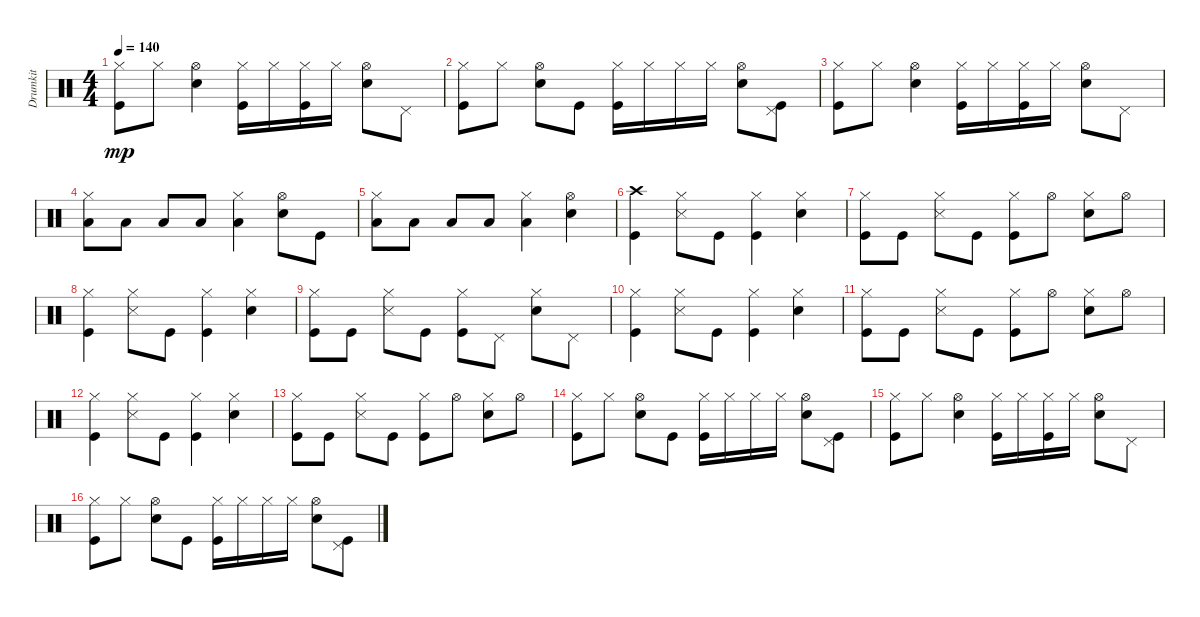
\track ("Drumkit" "Drumkit") {instrument percussion}
\staff {score}
\articulation defaults
\ts (4 4)
\tempo 140
\clef neutral
\ks c
("Hi-Hat (closed)" "Kick (hit)").8{dy mp} "Hi-Hat (closed)".8 ("Snare (hit) 2" "Hi-Hat (open)").4 ("Hi-Hat (closed)" "Kick (hit)").16 "Hi-Hat (closed)".16 ("Hi-Hat (closed)" "Kick (hit)").16 "Hi-Hat (closed)".16 ("Hi-Hat (open)" "Snare (hit) 2").8 "Pedal Hi-Hat (hit)".8 |
("Hi-Hat (closed)" "Kick (hit)").8 "Hi-Hat (closed)".8 ("Snare (hit) 2" "Hi-Hat (open)").8 "Kick (hit)".8 ("Hi-Hat (closed)" "Kick (hit)").16 "Hi-Hat (closed)".16 "Hi-Hat (closed)".16 "Hi-Hat (closed)".16 ("Hi-Hat (open)" "Snare (hit) 2").8 ("Pedal Hi-Hat (hit)" "Kick (hit)").8 |
("Hi-Hat (closed)" "Kick (hit)").8 "Hi-Hat (closed)".8 ("Snare (hit) 2" "Hi-Hat (open)").4 ("Hi-Hat (closed)" "Kick (hit)").16 "Hi-Hat (closed)".16 ("Hi-Hat (closed)" "Kick (hit)").16 "Hi-Hat (closed)".16 ("Hi-Hat (open)" "Snare (hit) 2").8 "Pedal Hi-Hat (hit)".8 |
("Low Floor Tom (hit)" "Hi-Hat (closed)").8 "Low Floor Tom (hit)".8 "Low Tom (hit)".8 "Low Tom (hit)".8 ("Low Floor Tom (hit)" "Hi-Hat (closed)").4 ("Snare (hit) 2" "Hi-Hat (open)").8 "Kick (hit)".8 |
("Low Floor Tom (hit)" "Hi-Hat (closed)").8 "Low Floor Tom (hit)".8 "Low Tom (hit)".8 "Low Tom (hit)".8 ("Low Floor Tom (hit)" "Hi-Hat (closed)").4 ("Snare (hit) 2" "Hi-Hat (open)").4 |
("Kick (hit)" "Crash high (hit)").4 ("Snare (side stick) 3" "Hi-Hat (closed)").8 "Kick (hit)".8 ("Kick (hit)" "Hi-Hat (closed)").4 ("Snare (hit) 2" "Hi-Hat (closed)").4 |
("Kick (hit)" "Hi-Hat (closed)").8 "Kick (hit)".8 ("Snare (side stick) 3" "Hi-Hat (closed)").8 "Kick (hit)".8 ("Hi-Hat (closed)" "Kick (hit)").8 "Hi-Hat (open)".8 ("Hi-Hat (closed)" "Snare (hit) 2").8 "Hi-Hat (open)".8 |
("Kick (hit)" "Hi-Hat (closed)").4 ("Snare (side stick) 3" "Hi-Hat (closed)").8 "Kick (hit)".8 ("Kick (hit)" "Hi-Hat (closed)").4 ("Snare (hit) 2" "Hi-Hat (closed)").4 |
("Kick (hit)" "Hi-Hat (closed)").8 "Kick (hit)".8 ("Snare (side stick) 3" "Hi-Hat (closed)").8 "Kick (hit)".8 ("Hi-Hat (closed)" "Kick (hit)").8 "Pedal Hi-Hat (hit)".8 ("Hi-Hat (closed)" "Snare (hit) 2").8 "Pedal Hi-Hat (hit)".8 |
("Kick (hit)" "Hi-Hat (closed)").4 ("Snare (side stick) 3" "Hi-Hat (closed)").8 "Kick (hit)".8 ("Kick (hit)" "Hi-Hat (closed)").4 ("Snare (hit) 2" "Hi-Hat (closed)").4 |
("Kick (hit)" "Hi-Hat (closed)").8 "Kick (hit)".8 ("Snare (side stick) 3" "Hi-Hat (closed)").8 "Kick (hit)".8 ("Hi-Hat (closed)" "Kick (hit)").8 "Hi-Hat (open)".8 ("Hi-Hat (closed)" "Snare (hit) 2").8 "Hi-Hat (open)".8 |
("Kick (hit)" "Hi-Hat (closed)").4 ("Snare (side stick) 3" "Hi-Hat (closed)").8 "Kick (hit)".8 ("Kick (hit)" "Hi-Hat (closed)").4 ("Snare (hit) 2" "Hi-Hat (closed)").4 |
("Kick (hit)" "Hi-Hat (closed)").8 "Kick (hit)".8 ("Snare (side stick) 3" "Hi-Hat (closed)").8 "Kick (hit)".8 ("Hi-Hat (closed)" "Kick (hit)").8 "Hi-Hat (open)".8 ("Hi-Hat (closed)" "Snare (hit) 2").8 "Hi-Hat (open)".8 |
("Hi-Hat (closed)" "Kick (hit)").8 "Hi-Hat (closed)".8 ("Snare (hit) 2" "Hi-Hat (open)").8 "Kick (hit)".8 ("Hi-Hat (closed)" "Kick (hit)").16 "Hi-Hat (closed)".16 "Hi-Hat (closed)".16 "Hi-Hat (closed)".16 ("Hi-Hat (open)" "Snare (hit) 2").8 ("Pedal Hi-Hat (hit)" "Kick (hit)").8 |
("Hi-Hat (closed)" "Kick (hit)").8 "Hi-Hat (closed)".8 ("Snare (hit) 2" "Hi-Hat (open)").4 ("Hi-Hat (closed)" "Kick (hit)").16 "Hi-Hat (closed)".16 ("Hi-Hat (closed)" "Kick (hit)").16 "Hi-Hat (closed)".16 ("Hi-Hat (open)" "Snare (hit) 2").8 "Pedal Hi-Hat (hit)".8 |
("Hi-Hat (closed)" "Kick (hit)").8 "Hi-Hat (closed)".8 ("Snare (hit) 2" "Hi-Hat (open)").8 "Kick (hit)".8 ("Hi-Hat (closed)" "Kick (hit)").16 "Hi-Hat (closed)".16 "Hi-Hat (closed)".16 "Hi-Hat (closed)".16 ("Hi-Hat (open)" "Snare (hit) 2").8 ("Pedal Hi-Hat (hit)" "Kick (hit)").8
